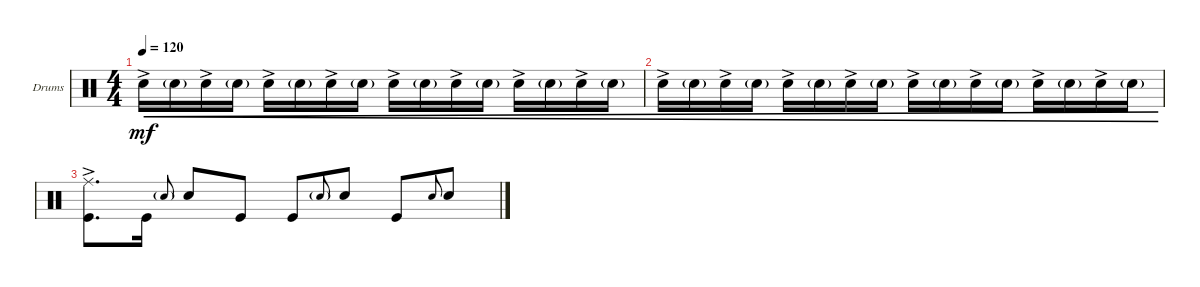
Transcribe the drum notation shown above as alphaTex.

\defaultSystemsLayout 4
\bracketExtendMode groupsimilarinstruments
\firstSystemTrackNameOrientation horizontal
\otherSystemsTrackNameOrientation horizontal
\track ("Drumkit" "Drums") {instrument percussion}
\staff {score}
\articulation defaults
\ts (4 4)
\tempo 120
\clef neutral
\ks c "Snare (hit) 2"{ac}.16{cre dy mf} "Snare (hit) 2"{g}.16{cre} "Snare (hit) 2"{ac}.16{cre} "Snare (hit) 2"{g}.16{cre} "Snare (hit) 2"{ac}.16{cre} "Snare (hit) 2"{g}.16{cre} "Snare (hit) 2"{ac}.16{cre} "Snare (hit) 2"{g}.16{cre} "Snare (hit) 2"{ac}.16{cre} "Snare (hit) 2"{g}.16{cre} "Snare (hit) 2"{ac}.16{cre} "Snare (hit) 2"{g}.16{cre} "Snare (hit) 2"{ac}.16{cre} "Snare (hit) 2"{g}.16{cre} "Snare (hit) 2"{ac}.16{cre} "Snare (hit) 2"{g}.16{cre}
|
"Snare (hit) 2"{ac}.16{cre} "Snare (hit) 2"{g}.16{cre} "Snare (hit) 2"{ac}.16{cre} "Snare (hit) 2"{g}.16{cre} "Snare (hit) 2"{ac}.16{cre} "Snare (hit) 2"{g}.16{cre} "Snare (hit) 2"{ac}.16{cre} "Snare (hit) 2"{g}.16{cre} "Snare (hit) 2"{ac}.16{cre} "Snare (hit) 2"{g}.16{cre} "Snare (hit) 2"{ac}.16{cre} "Snare (hit) 2"{g}.16{cre} "Snare (hit) 2"{ac}.16{cre} "Snare (hit) 2"{g}.16{cre} "Snare (hit) 2"{ac}.16{cre} "Snare (hit) 2"{g}.16{cre} |
("Kick (hit)" "Ride (middle)"{ac}).8{d} "Kick (hit)".16 "Snare (hit) 2"{g}.8{gr onbeat} "Snare (hit) 2".8 "Kick (hit)".8 "Kick (hit)".8 "Snare (hit) 2"{g}.8{gr onbeat} "Snare (hit) 2".8 "Kick (hit)".8 "Snare (hit) 2".8{gr onbeat} "Snare (hit) 2".8
